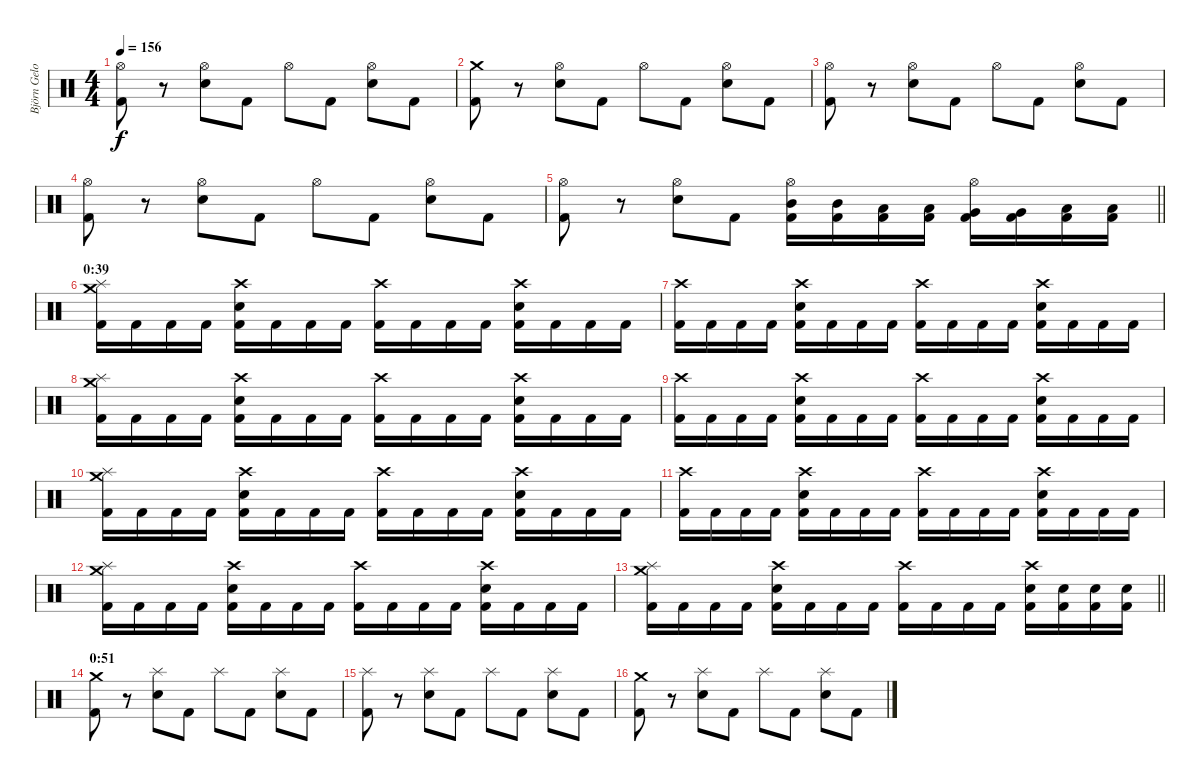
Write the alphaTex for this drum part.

\track ("Björn Gelotte" "Björn Gelo") {instrument percussion}
\staff {score}
\articulation defaults
\ts (4 4)
\tempo 156
\clef neutral
\ks c
("Hi-Hat (open)" "Kick (hit) 2").8{dy f} r.8 ("Hi-Hat (open)" "Electric Snare (hit)").8 "Kick (hit) 2".8 "Hi-Hat (open)".8 "Kick (hit) 2".8 ("Hi-Hat (open)" "Electric Snare (hit)").8 "Kick (hit) 2".8 |
("Crash medium (hit)" "Kick (hit) 2").8 r.8 ("Hi-Hat (open)" "Electric Snare (hit)").8 "Kick (hit) 2".8 "Hi-Hat (open)".8 "Kick (hit) 2".8 ("Hi-Hat (open)" "Electric Snare (hit)").8 "Kick (hit) 2".8 |
("Hi-Hat (open)" "Kick (hit) 2").8 r.8 ("Hi-Hat (open)" "Electric Snare (hit)").8 "Kick (hit) 2".8 "Hi-Hat (open)".8 "Kick (hit) 2".8 ("Hi-Hat (open)" "Electric Snare (hit)").8 "Kick (hit) 2".8 |
("Hi-Hat (open)" "Kick (hit) 2").8 r.8 ("Hi-Hat (open)" "Electric Snare (hit)").8 "Kick (hit) 2".8 "Hi-Hat (open)".8 "Kick (hit) 2".8 ("Hi-Hat (open)" "Electric Snare (hit)").8 "Kick (hit) 2".8 |
\barLineRight lightlight
("Hi-Hat (open)" "Kick (hit) 2").8 r.8 ("Hi-Hat (open)" "Electric Snare (hit)").8 "Kick (hit) 2".8 ("Hi-Hat (open)" "Mid Tom (hit)" "Kick (hit) 2").16 ("Mid Tom (hit)" "Kick (hit) 2").16 ("Low Tom (hit)" "Kick (hit) 2").16 ("Low Tom (hit)" "Kick (hit) 2").16 ("Hi-Hat (open)" "Very Low Tom (hit)" "Kick (hit) 2").16 ("Very Low Tom (hit)" "Kick (hit) 2").16 ("Low Floor Tom (hit)" "Kick (hit) 2").16 ("Low Floor Tom (hit)" "Kick (hit) 2").16 |
\section ("" "0:39")
("Crash medium (hit)" "Splash (hit)" "Kick (hit) 2").16 "Kick (hit) 2".16 "Kick (hit) 2".16 "Kick (hit) 2".16 ("Crash high (hit)" "Electric Snare (hit)" "Kick (hit) 2").16 "Kick (hit) 2".16 "Kick (hit) 2".16 "Kick (hit) 2".16 ("Crash high (hit)" "Kick (hit) 2").16 "Kick (hit) 2".16 "Kick (hit) 2".16 "Kick (hit) 2".16 ("Crash high (hit)" "Electric Snare (hit)" "Kick (hit) 2").16 "Kick (hit) 2".16 "Kick (hit) 2".16 "Kick (hit) 2".16 |
("Crash high (hit)" "Kick (hit) 2").16 "Kick (hit) 2".16 "Kick (hit) 2".16 "Kick (hit) 2".16 ("Crash high (hit)" "Electric Snare (hit)" "Kick (hit) 2").16 "Kick (hit) 2".16 "Kick (hit) 2".16 "Kick (hit) 2".16 ("Crash high (hit)" "Kick (hit) 2").16 "Kick (hit) 2".16 "Kick (hit) 2".16 "Kick (hit) 2".16 ("Crash high (hit)" "Electric Snare (hit)" "Kick (hit) 2").16 "Kick (hit) 2".16 "Kick (hit) 2".16 "Kick (hit) 2".16 |
("Crash medium (hit)" "Splash (hit)" "Kick (hit) 2").16 "Kick (hit) 2".16 "Kick (hit) 2".16 "Kick (hit) 2".16 ("Crash high (hit)" "Electric Snare (hit)" "Kick (hit) 2").16 "Kick (hit) 2".16 "Kick (hit) 2".16 "Kick (hit) 2".16 ("Crash high (hit)" "Kick (hit) 2").16 "Kick (hit) 2".16 "Kick (hit) 2".16 "Kick (hit) 2".16 ("Crash high (hit)" "Electric Snare (hit)" "Kick (hit) 2").16 "Kick (hit) 2".16 "Kick (hit) 2".16 "Kick (hit) 2".16 |
("Crash high (hit)" "Kick (hit) 2").16 "Kick (hit) 2".16 "Kick (hit) 2".16 "Kick (hit) 2".16 ("Crash high (hit)" "Electric Snare (hit)" "Kick (hit) 2").16 "Kick (hit) 2".16 "Kick (hit) 2".16 "Kick (hit) 2".16 ("Crash high (hit)" "Kick (hit) 2").16 "Kick (hit) 2".16 "Kick (hit) 2".16 "Kick (hit) 2".16 ("Crash high (hit)" "Electric Snare (hit)" "Kick (hit) 2").16 "Kick (hit) 2".16 "Kick (hit) 2".16 "Kick (hit) 2".16 |
("Crash medium (hit)" "Splash (hit)" "Kick (hit) 2").16 "Kick (hit) 2".16 "Kick (hit) 2".16 "Kick (hit) 2".16 ("Crash high (hit)" "Electric Snare (hit)" "Kick (hit) 2").16 "Kick (hit) 2".16 "Kick (hit) 2".16 "Kick (hit) 2".16 ("Crash high (hit)" "Kick (hit) 2").16 "Kick (hit) 2".16 "Kick (hit) 2".16 "Kick (hit) 2".16 ("Crash high (hit)" "Electric Snare (hit)" "Kick (hit) 2").16 "Kick (hit) 2".16 "Kick (hit) 2".16 "Kick (hit) 2".16 |
("Crash high (hit)" "Kick (hit) 2").16 "Kick (hit) 2".16 "Kick (hit) 2".16 "Kick (hit) 2".16 ("Crash high (hit)" "Electric Snare (hit)" "Kick (hit) 2").16 "Kick (hit) 2".16 "Kick (hit) 2".16 "Kick (hit) 2".16 ("Crash high (hit)" "Kick (hit) 2").16 "Kick (hit) 2".16 "Kick (hit) 2".16 "Kick (hit) 2".16 ("Crash high (hit)" "Electric Snare (hit)" "Kick (hit) 2").16 "Kick (hit) 2".16 "Kick (hit) 2".16 "Kick (hit) 2".16 |
("Crash medium (hit)" "Splash (hit)" "Kick (hit) 2").16 "Kick (hit) 2".16 "Kick (hit) 2".16 "Kick (hit) 2".16 ("Crash high (hit)" "Electric Snare (hit)" "Kick (hit) 2").16 "Kick (hit) 2".16 "Kick (hit) 2".16 "Kick (hit) 2".16 ("Crash high (hit)" "Kick (hit) 2").16 "Kick (hit) 2".16 "Kick (hit) 2".16 "Kick (hit) 2".16 ("Crash high (hit)" "Electric Snare (hit)" "Kick (hit) 2").16 "Kick (hit) 2".16 "Kick (hit) 2".16 "Kick (hit) 2".16 |
\barLineRight lightlight
("Crash medium (hit)" "Splash (hit)" "Kick (hit) 2").16 "Kick (hit) 2".16 "Kick (hit) 2".16 "Kick (hit) 2".16 ("Crash high (hit)" "Electric Snare (hit)" "Kick (hit) 2").16 "Kick (hit) 2".16 "Kick (hit) 2".16 "Kick (hit) 2".16 ("Crash high (hit)" "Kick (hit) 2").16 "Kick (hit) 2".16 "Kick (hit) 2".16 "Kick (hit) 2".16 ("Crash high (hit)" "Electric Snare (hit)" "Kick (hit) 2").16 ("Electric Snare (hit)" "Kick (hit) 2").16 ("Electric Snare (hit)" "Kick (hit) 2").16 ("Electric Snare (hit)" "Kick (hit) 2").16 |
\section ("" "0:51")
("Crash medium (hit)" "Kick (hit) 2").8 r.8 ("Splash (hit)" "Electric Snare (hit)").8 "Kick (hit) 2".8 "Splash (hit)".8 "Kick (hit) 2".8 ("Splash (hit)" "Electric Snare (hit)").8 "Kick (hit) 2".8 |
("Splash (hit)" "Kick (hit) 2").8 r.8 ("Splash (hit)" "Electric Snare (hit)").8 "Kick (hit) 2".8 "Splash (hit)".8 "Kick (hit) 2".8 ("Splash (hit)" "Electric Snare (hit)").8 "Kick (hit) 2".8 |
("Crash medium (hit)" "Kick (hit) 2").8 r.8 ("Splash (hit)" "Electric Snare (hit)").8 "Kick (hit) 2".8 "Splash (hit)".8 "Kick (hit) 2".8 ("Splash (hit)" "Electric Snare (hit)").8 "Kick (hit) 2".8
